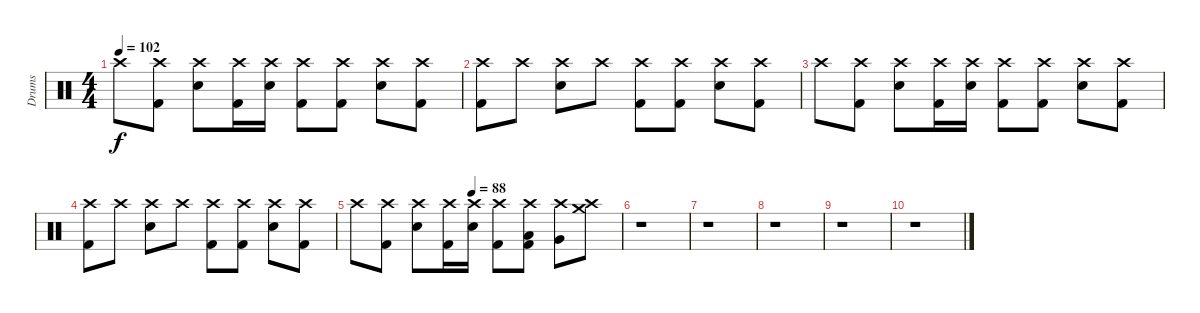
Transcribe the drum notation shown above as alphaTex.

\track ("Drums" "Drums") {instrument percussion}
\staff {score}
\articulation defaults
\ts (4 4)
\tempo 102
\clef neutral
\ks c "Crash high (hit)".8{dy f}
("Crash high (hit)" "Kick (hit) 2").8 ("Crash high (hit)" "Electric Snare (hit)").8 ("Crash high (hit)" "Kick (hit) 2").16 ("Crash high (hit)" "Electric Snare (hit)").16 ("Crash high (hit)" "Kick (hit) 2").8 ("Crash high (hit)" "Kick (hit) 2").8 ("Crash high (hit)" "Electric Snare (hit)").8 ("Crash high (hit)" "Kick (hit) 2").8 |
("Crash high (hit)" "Kick (hit) 2").8 "Crash high (hit)".8 ("Crash high (hit)" "Electric Snare (hit)").8 "Crash high (hit)".8 ("Crash high (hit)" "Kick (hit) 2").8 ("Crash high (hit)" "Kick (hit) 2").8 ("Crash high (hit)" "Electric Snare (hit)").8 ("Crash high (hit)" "Kick (hit) 2").8 |
"Crash high (hit)".8 ("Crash high (hit)" "Kick (hit) 2").8 ("Crash high (hit)" "Electric Snare (hit)").8 ("Crash high (hit)" "Kick (hit) 2").16 ("Crash high (hit)" "Electric Snare (hit)").16 ("Crash high (hit)" "Kick (hit) 2").8 ("Crash high (hit)" "Kick (hit) 2").8 ("Crash high (hit)" "Electric Snare (hit)").8 ("Crash high (hit)" "Kick (hit) 2").8 |
("Crash high (hit)" "Kick (hit) 2").8 "Crash high (hit)".8 ("Crash high (hit)" "Electric Snare (hit)").8 "Crash high (hit)".8 ("Crash high (hit)" "Kick (hit) 2").8 ("Crash high (hit)" "Kick (hit) 2").8 ("Crash high (hit)" "Electric Snare (hit)").8 ("Crash high (hit)" "Kick (hit) 2").8 |
\tempo (88 0.4375)
"Crash high (hit)".8 ("Crash high (hit)" "Kick (hit) 2").8 ("Crash high (hit)" "Electric Snare (hit)").8 ("Crash high (hit)" "Kick (hit) 2").16 ("Crash high (hit)" "Electric Snare (hit)").16 ("Crash high (hit)" "Kick (hit) 2").8 ("Crash high (hit)" "Low Tom (hit)" "Kick (hit) 2").8 ("Crash high (hit)" "Very Low Tom (hit)").8 ("Crash high (hit)" "Crash medium (hit)").8 |
r.1 |
r.1 |
r.1 |
r.1 |
r.1
